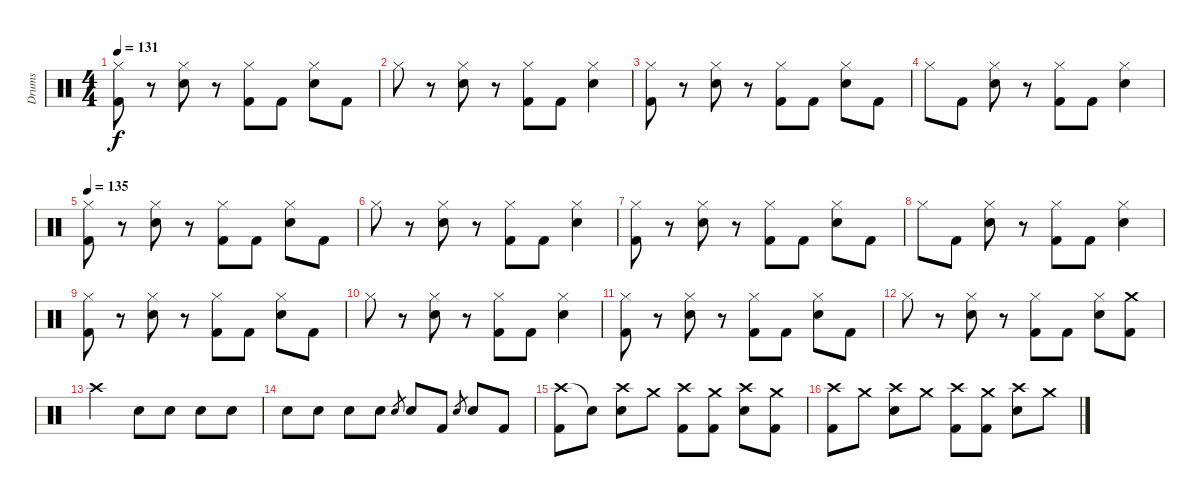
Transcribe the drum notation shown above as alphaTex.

\track ("Drums" "Drums") {instrument percussion}
\staff {score}
\articulation defaults
\ts (4 4)
\tempo 131
\clef neutral
\ks c
("Hi-Hat (closed)" "Kick (hit) 2").8{dy f} r.8 ("Hi-Hat (closed)" "Snare (hit) 2").8 r.8 ("Hi-Hat (closed)" "Kick (hit) 2").8 "Kick (hit) 2".8 ("Hi-Hat (closed)" "Snare (hit) 2").8 "Kick (hit) 2".8 |
"Hi-Hat (closed)".8 r.8 ("Hi-Hat (closed)" "Snare (hit) 2").8 r.8 ("Hi-Hat (closed)" "Kick (hit) 2").8 "Kick (hit) 2".8 ("Hi-Hat (closed)" "Snare (hit) 2").4 |
("Hi-Hat (closed)" "Kick (hit) 2").8 r.8 ("Hi-Hat (closed)" "Snare (hit) 2").8 r.8 ("Hi-Hat (closed)" "Kick (hit) 2").8 "Kick (hit) 2".8 ("Hi-Hat (closed)" "Snare (hit) 2").8 "Kick (hit) 2".8 |
"Hi-Hat (closed)".8 "Kick (hit) 2".8 ("Hi-Hat (closed)" "Snare (hit) 2").8 r.8 ("Hi-Hat (closed)" "Kick (hit) 2").8 "Kick (hit) 2".8 ("Hi-Hat (closed)" "Snare (hit) 2").4 |
\tempo 135
("Hi-Hat (closed)" "Kick (hit) 2").8 r.8 ("Hi-Hat (closed)" "Snare (hit) 2").8 r.8 ("Hi-Hat (closed)" "Kick (hit) 2").8 "Kick (hit) 2".8 ("Hi-Hat (closed)" "Snare (hit) 2").8 "Kick (hit) 2".8 |
"Hi-Hat (closed)".8 r.8 ("Hi-Hat (closed)" "Snare (hit) 2").8 r.8 ("Hi-Hat (closed)" "Kick (hit) 2").8 "Kick (hit) 2".8 ("Hi-Hat (closed)" "Snare (hit) 2").4 |
("Hi-Hat (closed)" "Kick (hit) 2").8 r.8 ("Hi-Hat (closed)" "Snare (hit) 2").8 r.8 ("Hi-Hat (closed)" "Kick (hit) 2").8 "Kick (hit) 2".8 ("Hi-Hat (closed)" "Snare (hit) 2").8 "Kick (hit) 2".8 |
"Hi-Hat (closed)".8 "Kick (hit) 2".8 ("Hi-Hat (closed)" "Snare (hit) 2").8 r.8 ("Hi-Hat (closed)" "Kick (hit) 2").8 "Kick (hit) 2".8 ("Hi-Hat (closed)" "Snare (hit) 2").4 |
("Hi-Hat (closed)" "Kick (hit) 2").8 r.8 ("Hi-Hat (closed)" "Snare (hit) 2").8 r.8 ("Hi-Hat (closed)" "Kick (hit) 2").8 "Kick (hit) 2".8 ("Hi-Hat (closed)" "Snare (hit) 2").8 "Kick (hit) 2".8 |
"Hi-Hat (closed)".8 r.8 ("Hi-Hat (closed)" "Snare (hit) 2").8 r.8 ("Hi-Hat (closed)" "Kick (hit) 2").8 "Kick (hit) 2".8 ("Hi-Hat (closed)" "Snare (hit) 2").4 |
("Hi-Hat (closed)" "Kick (hit) 2").8 r.8 ("Hi-Hat (closed)" "Snare (hit) 2").8 r.8 ("Hi-Hat (closed)" "Kick (hit) 2").8 "Kick (hit) 2".8 ("Hi-Hat (closed)" "Snare (hit) 2").8 "Kick (hit) 2".8 |
"Hi-Hat (closed)".8 r.8 ("Hi-Hat (closed)" "Snare (hit) 2").8 r.8 ("Hi-Hat (closed)" "Kick (hit) 2").8 "Kick (hit) 2".8 ("Hi-Hat (closed)" "Snare (hit) 2").8 ("Crash medium (hit)" "Kick (hit) 2").8 |
"Crash high (hit)".2 "Snare (hit) 2".8 "Snare (hit) 2".8 "Snare (hit) 2".8 "Snare (hit) 2".8 |
"Snare (hit) 2".8 "Snare (hit) 2".8 "Snare (hit) 2".8 "Snare (hit) 2".8 "Snare (hit) 2".8{gr} "Snare (hit) 2".8 "Kick (hit) 2".8 "Snare (hit) 2".8{gr} "Snare (hit) 2".8 "Kick (hit) 2".8 |
("Crash high (hit)" "Kick (hit) 2").8 "Snare (hit)"{t}.8 ("Crash high (hit)" "Snare (hit) 2").8 "Crash medium (hit)".8 ("Crash high (hit)" "Kick (hit) 2").8 ("Crash medium (hit)" "Kick (hit) 2").8 ("Crash high (hit)" "Snare (hit) 2").8 ("Crash medium (hit)" "Kick (hit) 2").8 |
("Crash high (hit)" "Kick (hit) 2").8 "Crash medium (hit)".8 ("Crash high (hit)" "Snare (hit) 2").8 "Crash medium (hit)".8 ("Crash high (hit)" "Kick (hit) 2").8 ("Crash medium (hit)" "Kick (hit) 2").8 ("Crash high (hit)" "Snare (hit) 2").8 "Crash medium (hit)".8
